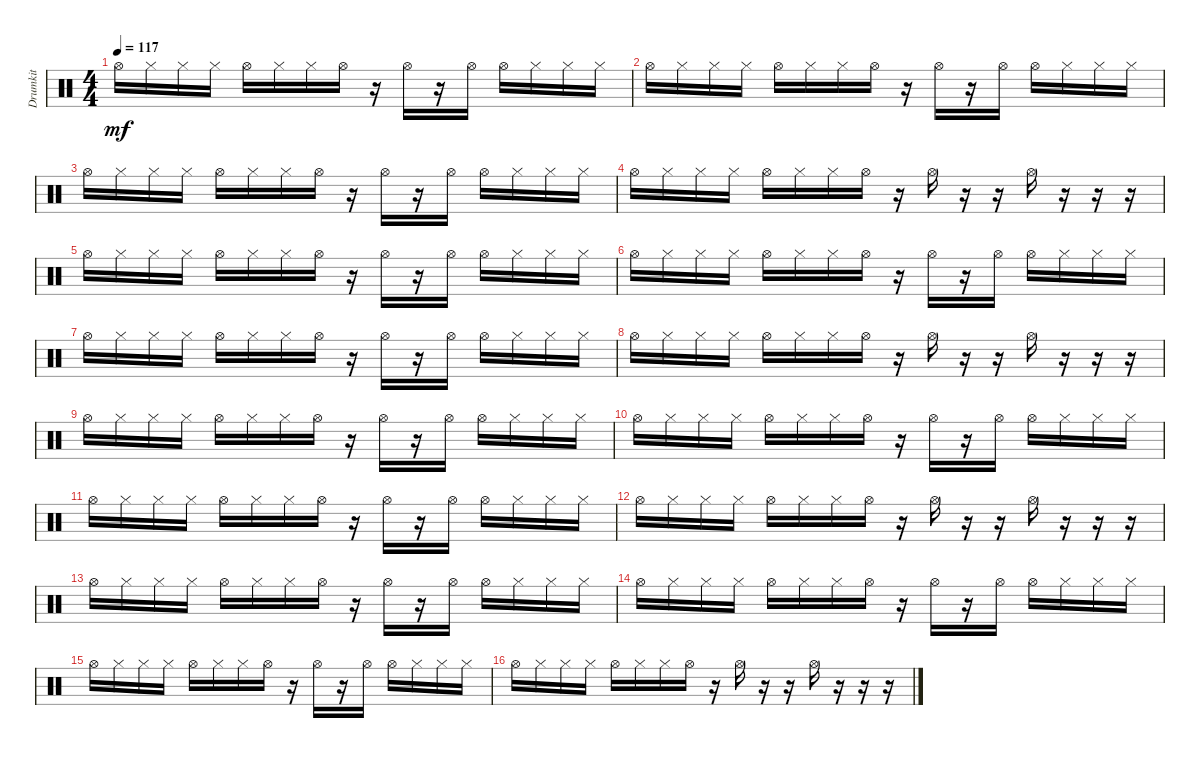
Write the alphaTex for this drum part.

\track ("Drumkit" "Drumkit") {instrument percussion}
\staff {score}
\articulation defaults
\ts (4 4)
\tempo 117
\clef neutral
\ks c "Hi-Hat (open)".16{dy mf} "Hi-Hat (closed)".16 "Hi-Hat (closed)".16 "Hi-Hat (closed)".16 "Hi-Hat (open)".16 "Hi-Hat (closed)".16 "Hi-Hat (closed)".16 "Hi-Hat (open)".16
r.16 "Hi-Hat (open)".16 r.16 "Hi-Hat (open)".16 "Hi-Hat (open)".16 "Hi-Hat (closed)".16 "Hi-Hat (closed)".16 "Hi-Hat (closed)".16 |
"Hi-Hat (open)".16 "Hi-Hat (closed)".16 "Hi-Hat (closed)".16 "Hi-Hat (closed)".16 "Hi-Hat (open)".16 "Hi-Hat (closed)".16 "Hi-Hat (closed)".16 "Hi-Hat (open)".16 r.16 "Hi-Hat (open)".16 r.16 "Hi-Hat (open)".16 "Hi-Hat (open)".16 "Hi-Hat (closed)".16 "Hi-Hat (closed)".16 "Hi-Hat (closed)".16 |
"Hi-Hat (open)".16 "Hi-Hat (closed)".16 "Hi-Hat (closed)".16 "Hi-Hat (closed)".16 "Hi-Hat (open)".16 "Hi-Hat (closed)".16 "Hi-Hat (closed)".16 "Hi-Hat (open)".16 r.16 "Hi-Hat (open)".16 r.16 "Hi-Hat (open)".16 "Hi-Hat (open)".16 "Hi-Hat (closed)".16 "Hi-Hat (closed)".16 "Hi-Hat (closed)".16 |
"Hi-Hat (open)".16 "Hi-Hat (closed)".16 "Hi-Hat (closed)".16 "Hi-Hat (closed)".16 "Hi-Hat (open)".16 "Hi-Hat (closed)".16 "Hi-Hat (closed)".16 "Hi-Hat (open)".16 r.16 "Hi-Hat (open)".16 r.16 r.16 "Hi-Hat (open)".16 r.16 r.16 r.16 |
"Hi-Hat (open)".16 "Hi-Hat (closed)".16 "Hi-Hat (closed)".16 "Hi-Hat (closed)".16 "Hi-Hat (open)".16 "Hi-Hat (closed)".16 "Hi-Hat (closed)".16 "Hi-Hat (open)".16 r.16 "Hi-Hat (open)".16 r.16 "Hi-Hat (open)".16 "Hi-Hat (open)".16 "Hi-Hat (closed)".16 "Hi-Hat (closed)".16 "Hi-Hat (closed)".16 |
"Hi-Hat (open)".16 "Hi-Hat (closed)".16 "Hi-Hat (closed)".16 "Hi-Hat (closed)".16 "Hi-Hat (open)".16 "Hi-Hat (closed)".16 "Hi-Hat (closed)".16 "Hi-Hat (open)".16 r.16 "Hi-Hat (open)".16 r.16 "Hi-Hat (open)".16 "Hi-Hat (open)".16 "Hi-Hat (closed)".16 "Hi-Hat (closed)".16 "Hi-Hat (closed)".16 |
"Hi-Hat (open)".16 "Hi-Hat (closed)".16 "Hi-Hat (closed)".16 "Hi-Hat (closed)".16 "Hi-Hat (open)".16 "Hi-Hat (closed)".16 "Hi-Hat (closed)".16 "Hi-Hat (open)".16 r.16 "Hi-Hat (open)".16 r.16 "Hi-Hat (open)".16 "Hi-Hat (open)".16 "Hi-Hat (closed)".16 "Hi-Hat (closed)".16 "Hi-Hat (closed)".16 |
"Hi-Hat (open)".16 "Hi-Hat (closed)".16 "Hi-Hat (closed)".16 "Hi-Hat (closed)".16 "Hi-Hat (open)".16 "Hi-Hat (closed)".16 "Hi-Hat (closed)".16 "Hi-Hat (open)".16 r.16 "Hi-Hat (open)".16 r.16 r.16 "Hi-Hat (open)".16 r.16 r.16 r.16 |
"Hi-Hat (open)".16 "Hi-Hat (closed)".16 "Hi-Hat (closed)".16 "Hi-Hat (closed)".16 "Hi-Hat (open)".16 "Hi-Hat (closed)".16 "Hi-Hat (closed)".16 "Hi-Hat (open)".16 r.16 "Hi-Hat (open)".16 r.16 "Hi-Hat (open)".16 "Hi-Hat (open)".16 "Hi-Hat (closed)".16 "Hi-Hat (closed)".16 "Hi-Hat (closed)".16 |
"Hi-Hat (open)".16 "Hi-Hat (closed)".16 "Hi-Hat (closed)".16 "Hi-Hat (closed)".16 "Hi-Hat (open)".16 "Hi-Hat (closed)".16 "Hi-Hat (closed)".16 "Hi-Hat (open)".16 r.16 "Hi-Hat (open)".16 r.16 "Hi-Hat (open)".16 "Hi-Hat (open)".16 "Hi-Hat (closed)".16 "Hi-Hat (closed)".16 "Hi-Hat (closed)".16 |
"Hi-Hat (open)".16 "Hi-Hat (closed)".16 "Hi-Hat (closed)".16 "Hi-Hat (closed)".16 "Hi-Hat (open)".16 "Hi-Hat (closed)".16 "Hi-Hat (closed)".16 "Hi-Hat (open)".16 r.16 "Hi-Hat (open)".16 r.16 "Hi-Hat (open)".16 "Hi-Hat (open)".16 "Hi-Hat (closed)".16 "Hi-Hat (closed)".16 "Hi-Hat (closed)".16 |
"Hi-Hat (open)".16 "Hi-Hat (closed)".16 "Hi-Hat (closed)".16 "Hi-Hat (closed)".16 "Hi-Hat (open)".16 "Hi-Hat (closed)".16 "Hi-Hat (closed)".16 "Hi-Hat (open)".16 r.16 "Hi-Hat (open)".16 r.16 r.16 "Hi-Hat (open)".16 r.16 r.16 r.16 |
"Hi-Hat (open)".16 "Hi-Hat (closed)".16 "Hi-Hat (closed)".16 "Hi-Hat (closed)".16 "Hi-Hat (open)".16 "Hi-Hat (closed)".16 "Hi-Hat (closed)".16 "Hi-Hat (open)".16 r.16 "Hi-Hat (open)".16 r.16 "Hi-Hat (open)".16 "Hi-Hat (open)".16 "Hi-Hat (closed)".16 "Hi-Hat (closed)".16 "Hi-Hat (closed)".16 |
"Hi-Hat (open)".16 "Hi-Hat (closed)".16 "Hi-Hat (closed)".16 "Hi-Hat (closed)".16 "Hi-Hat (open)".16 "Hi-Hat (closed)".16 "Hi-Hat (closed)".16 "Hi-Hat (open)".16 r.16 "Hi-Hat (open)".16 r.16 "Hi-Hat (open)".16 "Hi-Hat (open)".16 "Hi-Hat (closed)".16 "Hi-Hat (closed)".16 "Hi-Hat (closed)".16 |
"Hi-Hat (open)".16 "Hi-Hat (closed)".16 "Hi-Hat (closed)".16 "Hi-Hat (closed)".16 "Hi-Hat (open)".16 "Hi-Hat (closed)".16 "Hi-Hat (closed)".16 "Hi-Hat (open)".16 r.16 "Hi-Hat (open)".16 r.16 "Hi-Hat (open)".16 "Hi-Hat (open)".16 "Hi-Hat (closed)".16 "Hi-Hat (closed)".16 "Hi-Hat (closed)".16 |
"Hi-Hat (open)".16 "Hi-Hat (closed)".16 "Hi-Hat (closed)".16 "Hi-Hat (closed)".16 "Hi-Hat (open)".16 "Hi-Hat (closed)".16 "Hi-Hat (closed)".16 "Hi-Hat (open)".16 r.16 "Hi-Hat (open)".16 r.16 r.16 "Hi-Hat (open)".16 r.16 r.16 r.16
